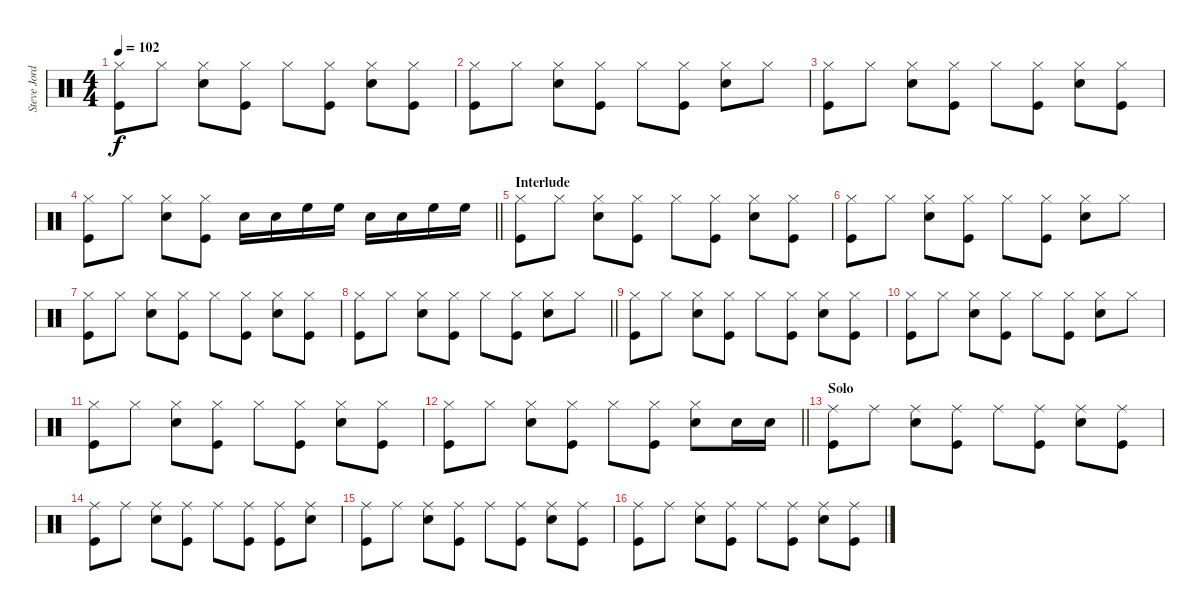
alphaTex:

\track ("Steve Jordan (Drums)" "Steve Jord") {instrument percussion}
\staff {score}
\articulation defaults
\ts (4 4)
\tempo 102
\clef neutral
\ks c
("Hi-Hat (closed)" "Kick (hit)").8{dy f} "Hi-Hat (closed)".8 ("Hi-Hat (closed)" "Snare (hit) 2").8 ("Hi-Hat (closed)" "Kick (hit)").8 "Hi-Hat (closed)".8 ("Hi-Hat (closed)" "Kick (hit)").8 ("Hi-Hat (closed)" "Snare (hit) 2").8 ("Hi-Hat (closed)" "Kick (hit)").8 |
("Hi-Hat (closed)" "Kick (hit)").8 "Hi-Hat (closed)".8 ("Hi-Hat (closed)" "Snare (hit) 2").8 ("Hi-Hat (closed)" "Kick (hit)").8 "Hi-Hat (closed)".8 ("Hi-Hat (closed)" "Kick (hit)").8 ("Hi-Hat (closed)" "Snare (hit) 2").8 "Hi-Hat (closed)".8 |
("Hi-Hat (closed)" "Kick (hit)").8 "Hi-Hat (closed)".8 ("Hi-Hat (closed)" "Snare (hit) 2").8 ("Hi-Hat (closed)" "Kick (hit)").8 "Hi-Hat (closed)".8 ("Hi-Hat (closed)" "Kick (hit)").8 ("Hi-Hat (closed)" "Snare (hit) 2").8 ("Hi-Hat (closed)" "Kick (hit)").8 |
\barLineRight lightlight
("Hi-Hat (closed)" "Kick (hit)").8 "Hi-Hat (closed)".8 ("Hi-Hat (closed)" "Snare (hit) 2").8 ("Hi-Hat (closed)" "Kick (hit)").8 "Snare (hit) 2".16 "Snare (hit) 2".16 "High Floor Tom (hit)".16 "High Floor Tom (hit)".16 "Snare (hit) 2".16 "Snare (hit) 2".16 "High Floor Tom (hit)".16 "High Floor Tom (hit)".16 |
\section ("" "Interlude")
("Hi-Hat (closed)" "Kick (hit)").8 "Hi-Hat (closed)".8 ("Hi-Hat (closed)" "Snare (hit) 2").8 ("Hi-Hat (closed)" "Kick (hit)").8 "Hi-Hat (closed)".8 ("Hi-Hat (closed)" "Kick (hit)").8 ("Hi-Hat (closed)" "Snare (hit) 2").8 ("Hi-Hat (closed)" "Kick (hit)").8 |
("Hi-Hat (closed)" "Kick (hit)").8 "Hi-Hat (closed)".8 ("Hi-Hat (closed)" "Snare (hit) 2").8 ("Hi-Hat (closed)" "Kick (hit)").8 "Hi-Hat (closed)".8 ("Hi-Hat (closed)" "Kick (hit)").8 ("Hi-Hat (closed)" "Snare (hit) 2").8 "Hi-Hat (closed)".8 |
("Hi-Hat (closed)" "Kick (hit)").8 "Hi-Hat (closed)".8 ("Hi-Hat (closed)" "Snare (hit) 2").8 ("Hi-Hat (closed)" "Kick (hit)").8 "Hi-Hat (closed)".8 ("Hi-Hat (closed)" "Kick (hit)").8 ("Hi-Hat (closed)" "Snare (hit) 2").8 ("Hi-Hat (closed)" "Kick (hit)").8 |
\barLineRight lightlight
("Hi-Hat (closed)" "Kick (hit)").8 "Hi-Hat (closed)".8 ("Hi-Hat (closed)" "Snare (hit) 2").8 ("Hi-Hat (closed)" "Kick (hit)").8 "Hi-Hat (closed)".8 ("Hi-Hat (closed)" "Kick (hit)").8 ("Hi-Hat (closed)" "Snare (hit) 2").8 "Hi-Hat (closed)".8 |
("Hi-Hat (closed)" "Kick (hit)").8 "Hi-Hat (closed)".8 ("Hi-Hat (closed)" "Snare (hit) 2").8 ("Hi-Hat (closed)" "Kick (hit)").8 "Hi-Hat (closed)".8 ("Hi-Hat (closed)" "Kick (hit)").8 ("Hi-Hat (closed)" "Snare (hit) 2").8 ("Hi-Hat (closed)" "Kick (hit)").8 |
("Hi-Hat (closed)" "Kick (hit)").8 "Hi-Hat (closed)".8 ("Hi-Hat (closed)" "Snare (hit) 2").8 ("Hi-Hat (closed)" "Kick (hit)").8 "Hi-Hat (closed)".8 ("Hi-Hat (closed)" "Kick (hit)").8 ("Hi-Hat (closed)" "Snare (hit) 2").8 "Hi-Hat (closed)".8 |
("Hi-Hat (closed)" "Kick (hit)").8 "Hi-Hat (closed)".8 ("Hi-Hat (closed)" "Snare (hit) 2").8 ("Hi-Hat (closed)" "Kick (hit)").8 "Hi-Hat (closed)".8 ("Hi-Hat (closed)" "Kick (hit)").8 ("Hi-Hat (closed)" "Snare (hit) 2").8 ("Hi-Hat (closed)" "Kick (hit)").8 |
\barLineRight lightlight
("Hi-Hat (closed)" "Kick (hit)").8 "Hi-Hat (closed)".8 ("Hi-Hat (closed)" "Snare (hit) 2").8 ("Hi-Hat (closed)" "Kick (hit)").8 "Hi-Hat (closed)".8 ("Hi-Hat (closed)" "Kick (hit)").8 ("Hi-Hat (closed)" "Snare (hit) 2").8 "Snare (hit) 2".16 "Snare (hit) 2".16 |
\section ("" "Solo")
("Ride (middle)" "Kick (hit)").8 "Ride (middle)".8 ("Ride (middle)" "Snare (hit) 2").8 ("Ride (middle)" "Kick (hit)").8 "Ride (middle)".8 ("Ride (middle)" "Kick (hit)").8 ("Ride (middle)" "Snare (hit) 2").8 ("Ride (middle)" "Kick (hit)").8 |
("Ride (middle)" "Kick (hit)").8 "Ride (middle)".8 ("Ride (middle)" "Snare (hit) 2").8 ("Ride (middle)" "Kick (hit)").8 "Ride (middle)".8 ("Ride (middle)" "Kick (hit)").8 ("Ride (middle)" "Kick (hit)").8 ("Ride (middle)" "Snare (hit) 2").8 |
("Ride (middle)" "Kick (hit)").8 "Ride (middle)".8 ("Ride (middle)" "Snare (hit) 2").8 ("Ride (middle)" "Kick (hit)").8 "Ride (middle)".8 ("Ride (middle)" "Kick (hit)").8 ("Ride (middle)" "Snare (hit) 2").8 ("Ride (middle)" "Kick (hit)").8 |
("Ride (middle)" "Kick (hit)").8 "Ride (middle)".8 ("Ride (middle)" "Snare (hit) 2").8 ("Ride (middle)" "Kick (hit)").8 "Ride (middle)".8 ("Ride (middle)" "Kick (hit)").8 ("Ride (middle)" "Snare (hit) 2").8 ("Ride (middle)" "Kick (hit)").8
